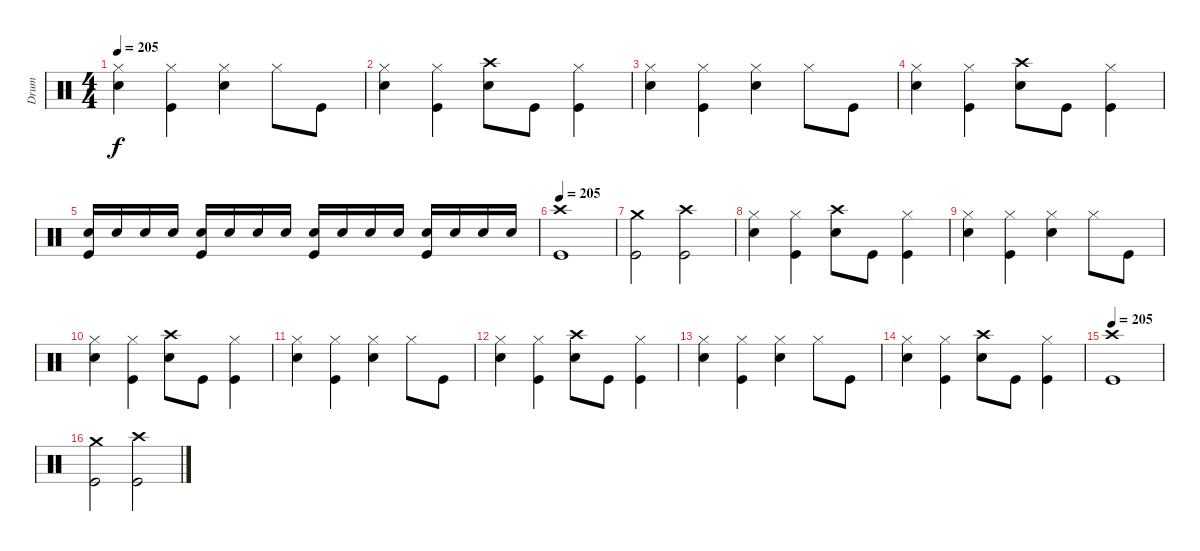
\track ("Drum" "Drum") {instrument percussion}
\staff {score}
\articulation defaults
\ts (4 4)
\tempo 205
\clef neutral
\ks c
("Hi-Hat (closed)" "Snare (hit) 2").4{dy f} ("Hi-Hat (closed)" "Kick (hit)").4 ("Hi-Hat (closed)" "Snare (hit) 2").4 "Hi-Hat (closed)".8 "Kick (hit)".8 |
("Hi-Hat (closed)" "Snare (hit) 2").4 ("Hi-Hat (closed)" "Kick (hit)").4 ("Crash high (hit)" "Snare (hit) 2").8 "Kick (hit)".8 ("Hi-Hat (closed)" "Kick (hit)").4 |
("Hi-Hat (closed)" "Snare (hit) 2").4 ("Hi-Hat (closed)" "Kick (hit)").4 ("Hi-Hat (closed)" "Snare (hit) 2").4 "Hi-Hat (closed)".8 "Kick (hit)".8 |
("Hi-Hat (closed)" "Snare (hit) 2").4 ("Hi-Hat (closed)" "Kick (hit)").4 ("Crash high (hit)" "Snare (hit) 2").8 "Kick (hit)".8 ("Hi-Hat (closed)" "Kick (hit)").4 |
("Snare (hit) 2" "Kick (hit)").16 "Snare (hit) 2".16 "Snare (hit) 2".16 "Snare (hit) 2".16 ("Snare (hit) 2" "Kick (hit)").16 "Snare (hit) 2".16 "Snare (hit) 2".16 "Snare (hit) 2".16 ("Snare (hit) 2" "Kick (hit)").16 "Snare (hit) 2".16 "Snare (hit) 2".16 "Snare (hit) 2".16 ("Snare (hit) 2" "Kick (hit)").16 "Snare (hit) 2".16 "Snare (hit) 2".16 "Snare (hit) 2".16 |
\tempo 210
\tempo 205
("Crash high (hit)" "Kick (hit)").1 |
("Crash medium (hit)" "Kick (hit)").2 ("Crash high (hit)" "Kick (hit)").2 |
("Hi-Hat (closed)" "Snare (hit) 2").4 ("Hi-Hat (closed)" "Kick (hit)").4 ("Crash high (hit)" "Snare (hit) 2").8 "Kick (hit)".8 ("Hi-Hat (closed)" "Kick (hit)").4 |
("Hi-Hat (closed)" "Snare (hit) 2").4 ("Hi-Hat (closed)" "Kick (hit)").4 ("Hi-Hat (closed)" "Snare (hit) 2").4 "Hi-Hat (closed)".8 "Kick (hit)".8 |
("Hi-Hat (closed)" "Snare (hit) 2").4 ("Hi-Hat (closed)" "Kick (hit)").4 ("Crash high (hit)" "Snare (hit) 2").8 "Kick (hit)".8 ("Hi-Hat (closed)" "Kick (hit)").4 |
("Hi-Hat (closed)" "Snare (hit) 2").4 ("Hi-Hat (closed)" "Kick (hit)").4 ("Hi-Hat (closed)" "Snare (hit) 2").4 "Hi-Hat (closed)".8 "Kick (hit)".8 |
("Hi-Hat (closed)" "Snare (hit) 2").4 ("Hi-Hat (closed)" "Kick (hit)").4 ("Crash high (hit)" "Snare (hit) 2").8 "Kick (hit)".8 ("Hi-Hat (closed)" "Kick (hit)").4 |
("Hi-Hat (closed)" "Snare (hit) 2").4 ("Hi-Hat (closed)" "Kick (hit)").4 ("Hi-Hat (closed)" "Snare (hit) 2").4 "Hi-Hat (closed)".8 "Kick (hit)".8 |
("Hi-Hat (closed)" "Snare (hit) 2").4 ("Hi-Hat (closed)" "Kick (hit)").4 ("Crash high (hit)" "Snare (hit) 2").8 "Kick (hit)".8 ("Hi-Hat (closed)" "Kick (hit)").4 |
\tempo 205
("Crash high (hit)" "Kick (hit)").1 |
("Crash medium (hit)" "Kick (hit)").2 ("Crash high (hit)" "Kick (hit)").2
